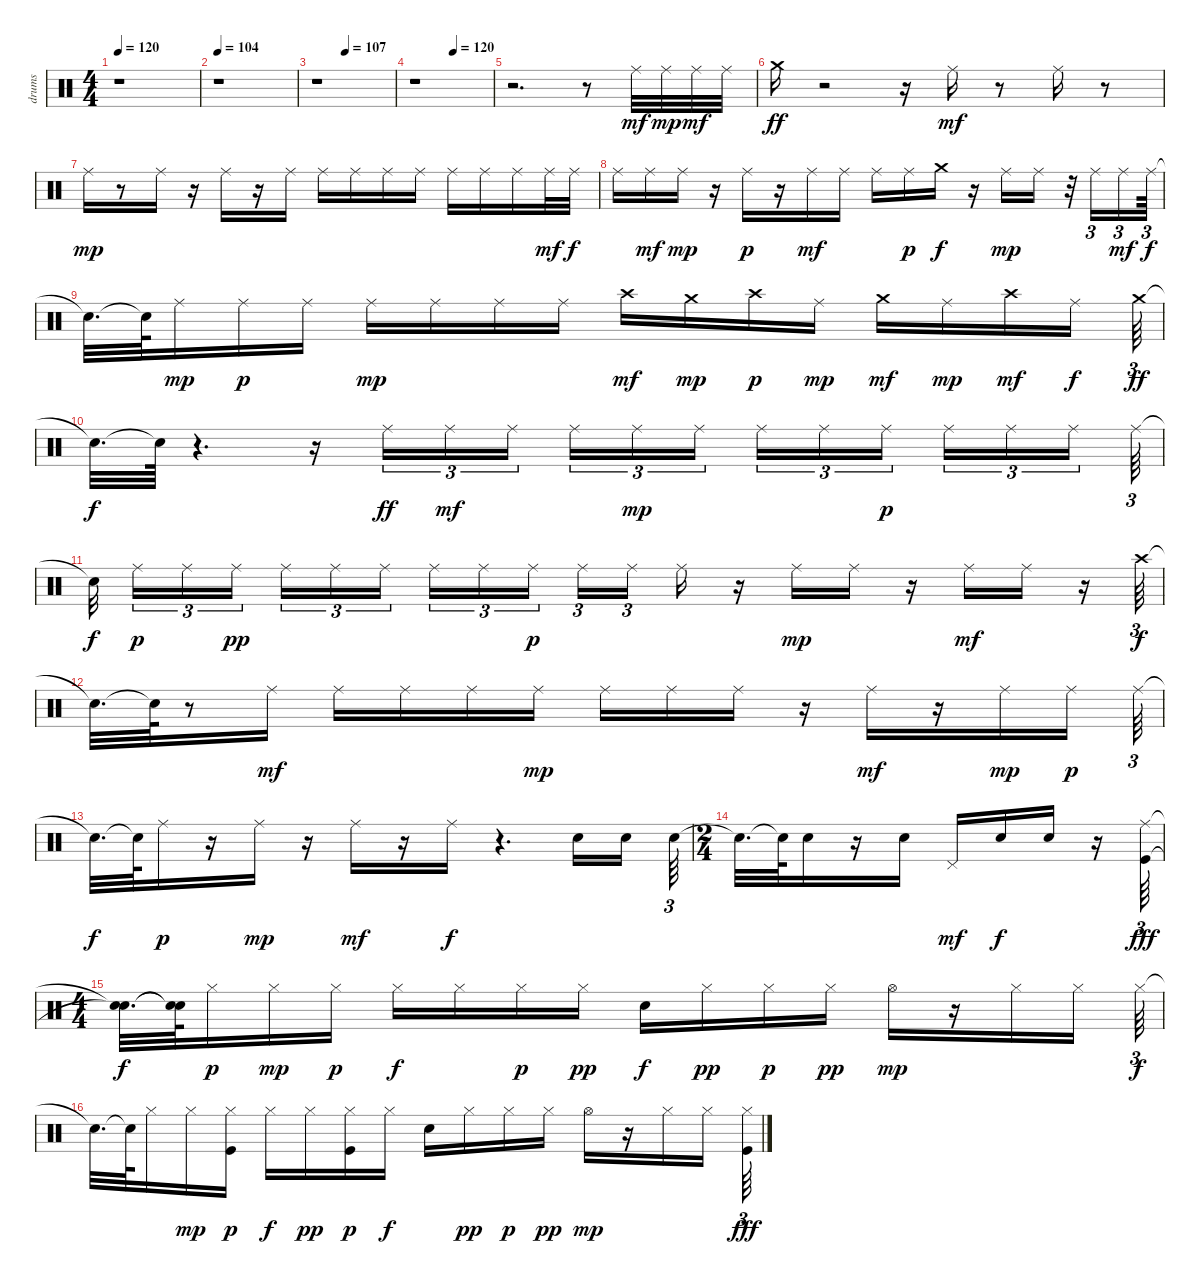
\track ("drums" "drums") {instrument percussion}
\staff {score}
\articulation defaults
\ts (4 4)
\tempo 120
\clef neutral
\ks c
r.1{dy mf} |
\tempo 104
r.1 |
\tempo (107 0.375)
r.1 |
\tempo (120 0.5)
r.1 |
r.2{d} r.8 "Ride (middle)".32 "Ride (middle)".32{dy mp} "Ride (middle)".32{dy mf} "Ride (middle)".32 |
"Crash medium (hit)".16{dy ff} r.2 r.16 "Ride (middle)".16{dy mf} r.8 "Ride (middle)".16 r.8 |
"Ride (middle)".16{dy mp} r.8 "Ride (middle)".16 r.16 "Ride (middle)".16 r.16 "Ride (middle)".16 "Ride (middle)".16 "Ride (middle)".16 "Ride (middle)".16 "Ride (middle)".16 "Ride (middle)".16 "Ride (middle)".16 "Ride (middle)".16 "Ride (middle)".32{dy mf} "Ride (middle)".32{dy f} |
"Ride (middle)".16 "Ride (middle)".16{dy mf} "Ride (middle)".16{dy mp} r.16 "Ride (middle)".16{dy p} r.16 "Ride (middle)".16{dy mf} "Ride (middle)".16 "Ride (middle)".16 "Ride (middle)".16{dy p} "Crash medium (hit)".16{dy f} r.16 "Ride (middle)".16{dy mp} "Ride (middle)".16 r.32 "Ride (middle)".16{tu (3 2)} "Ride (middle)".16{tu (3 2) dy mf} "Ride (middle)".64{tu (3 2) dy f} |
"Snare (hit)"{t}.32{d} "Snare (hit)"{t}.64 "Ride (middle)".16{dy mp} "Ride (middle)".16{dy p} "Ride (middle)".16 "Ride (middle)".16{dy mp} "Ride (middle)".16 "Ride (middle)".16 "Ride (middle)".16 "Crash high (hit)".16{dy mf} "Crash medium (hit)".16{dy mp} "Crash high (hit)".16{dy p} "Ride (middle)".16{dy mp} "Crash medium (hit)".16{dy mf} "Ride (middle)".16{dy mp} "Crash high (hit)".16{dy mf} "Ride (middle)".16{dy f} "Crash medium (hit)".64{tu (3 2) dy ff} |
"Snare (hit)"{t}.32{d dy f} "Snare (hit)"{t}.64 r.4{d} r.16 "Ride (middle)".16{tu (3 2) dy ff} "Ride (middle)".16{tu (3 2) dy mf} "Ride (middle)".16{tu (3 2) beam splitsecondary} "Ride (middle)".16{tu (3 2)} "Ride (middle)".16{tu (3 2) dy mp} "Ride (middle)".16{tu (3 2)} "Ride (middle)".16{tu (3 2)} "Ride (middle)".16{tu (3 2)} "Ride (middle)".16{tu (3 2) dy p beam splitsecondary} "Ride (middle)".16{tu (3 2)} "Ride (middle)".16{tu (3 2)} "Ride (middle)".16{tu (3 2)} "Ride (middle)".64{tu (3 2)} |
"Snare (hit)"{t}.32{dy f beam splitsecondary} "Ride (middle)".16{tu (3 2) dy p} "Ride (middle)".16{tu (3 2)} "Ride (middle)".16{tu (3 2) dy pp beam splitsecondary} "Ride (middle)".16{tu (3 2)} "Ride (middle)".16{tu (3 2)} "Ride (middle)".16{tu (3 2)} "Ride (middle)".16{tu (3 2)} "Ride (middle)".16{tu (3 2)} "Ride (middle)".16{tu (3 2) dy p beam splitsecondary} "Ride (middle)".16{tu (3 2)} "Ride (middle)".16{tu (3 2) beam splitsecondary} "Ride (middle)".16 r.16 "Ride (middle)".16{dy mp} "Ride (middle)".16 r.16 "Ride (middle)".16{dy mf} "Ride (middle)".16 r.16 "Crash high (hit)".64{tu (3 2) dy f} |
"Snare (hit)"{t}.32{d} "Snare (hit)"{t}.64 r.8 "Ride (middle)".16{dy mf} "Ride (middle)".16 "Ride (middle)".16 "Ride (middle)".16 "Ride (middle)".16{dy mp} "Ride (middle)".16 "Ride (middle)".16 "Ride (middle)".16 r.16 "Ride (middle)".16{dy mf} r.16 "Ride (middle)".16{dy mp} "Ride (middle)".16{dy p} "Ride (middle)".64{tu (3 2)} |
"Snare (hit)"{t}.32{d dy f} "Snare (hit)"{t}.64 "Ride (middle)".16{dy p} r.16 "Ride (middle)".16{dy mp} r.16 "Ride (middle)".16{dy mf} r.16 "Ride (middle)".16{dy f} r.4{d} "Snare (hit) 2".16 "Snare (hit) 2".16 "Snare (hit) 2".64{tu (3 2)} |
\ts (2 4)
"Snare (hit)"{t}.32{d} "Snare (hit)"{t}.64 "Snare (hit) 2".16 r.16 "Snare (hit) 2".16 "Pedal Hi-Hat (hit)".16{dy mf} "Snare (hit) 2".16{dy f} "Snare (hit) 2".16 r.16 ("Kick (hit)" "Ride (middle)").64{tu (3 2) dy fff} |
\ts (4 4)
("Snare (hit)"{t} "Snare (hit)"{t}).32{d dy f} ("Snare (hit)"{t} "Snare (hit)"{t}).64 "Hi-Hat (closed)".16{dy p} "Hi-Hat (closed)".16{dy mp} "Hi-Hat (closed)".16{dy p} "Hi-Hat (closed)".16{dy f} "Hi-Hat (closed)".16 "Hi-Hat (closed)".16{dy p} "Hi-Hat (closed)".16{dy pp} "Snare (hit) 2".16{dy f} "Hi-Hat (closed)".16{dy pp} "Hi-Hat (closed)".16{dy p} "Hi-Hat (closed)".16{dy pp} "Hi-Hat (open)".16{dy mp} r.16 "Hi-Hat (closed)".16 "Hi-Hat (closed)".16 "Hi-Hat (closed)".64{tu (3 2) dy f} |
"Snare (hit)"{t}.32{d} "Snare (hit)"{t}.64 "Hi-Hat (closed)".16 "Hi-Hat (closed)".16{dy mp} ("Kick (hit)" "Hi-Hat (closed)").16{dy p} "Hi-Hat (closed)".16{dy f} "Hi-Hat (closed)".16{dy pp} ("Kick (hit)" "Hi-Hat (closed)").16{dy p} "Hi-Hat (closed)".16{dy f} "Snare (hit) 2".16 "Hi-Hat (closed)".16{dy pp} "Hi-Hat (closed)".16{dy p} "Hi-Hat (closed)".16{dy pp} "Hi-Hat (open)".16{dy mp} r.16 "Hi-Hat (closed)".16 "Hi-Hat (closed)".16 ("Kick (hit)" "Hi-Hat (closed)").64{tu (3 2) dy fff}
